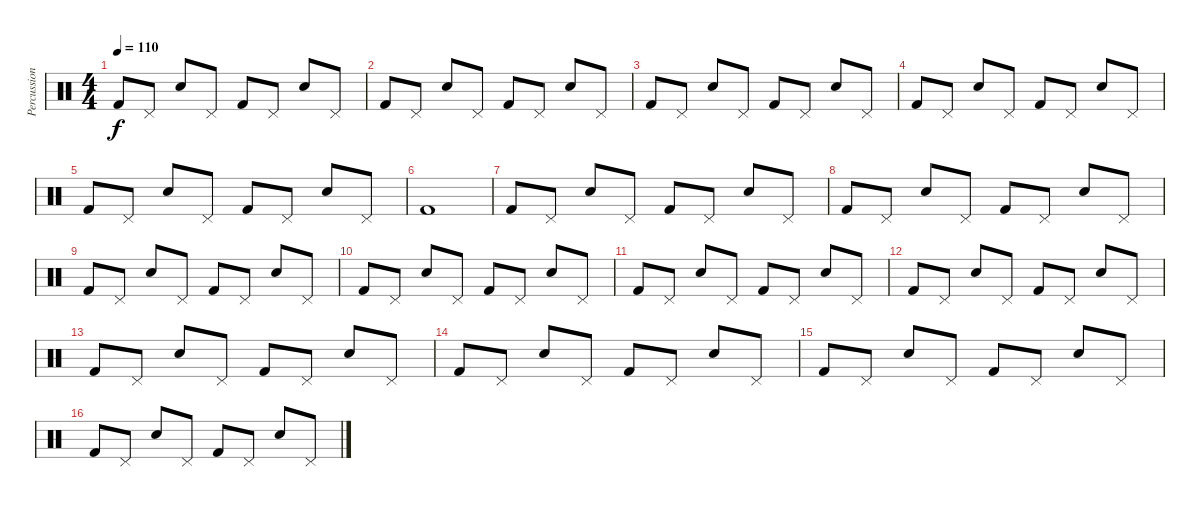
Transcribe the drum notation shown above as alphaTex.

\track ("Percussion" "Percussion") {instrument percussion}
\staff {score}
\articulation defaults
\ts (4 4)
\tempo 110
\clef neutral
\ks c "Kick (hit) 2".8{dy f} "Pedal Hi-Hat (hit)".8 "Snare (hit) 2".8 "Pedal Hi-Hat (hit)".8 "Kick (hit) 2".8 "Pedal Hi-Hat (hit)".8 "Snare (hit) 2".8 "Pedal Hi-Hat (hit)".8
|
"Kick (hit) 2".8 "Pedal Hi-Hat (hit)".8 "Snare (hit) 2".8 "Pedal Hi-Hat (hit)".8 "Kick (hit) 2".8 "Pedal Hi-Hat (hit)".8 "Snare (hit) 2".8 "Pedal Hi-Hat (hit)".8 |
"Kick (hit) 2".8 "Pedal Hi-Hat (hit)".8 "Snare (hit) 2".8 "Pedal Hi-Hat (hit)".8 "Kick (hit) 2".8 "Pedal Hi-Hat (hit)".8 "Snare (hit) 2".8 "Pedal Hi-Hat (hit)".8 |
"Kick (hit) 2".8 "Pedal Hi-Hat (hit)".8 "Snare (hit) 2".8 "Pedal Hi-Hat (hit)".8 "Kick (hit) 2".8 "Pedal Hi-Hat (hit)".8 "Snare (hit) 2".8 "Pedal Hi-Hat (hit)".8 |
"Kick (hit) 2".8 "Pedal Hi-Hat (hit)".8 "Snare (hit) 2".8 "Pedal Hi-Hat (hit)".8 "Kick (hit) 2".8 "Pedal Hi-Hat (hit)".8 "Snare (hit) 2".8 "Pedal Hi-Hat (hit)".8 |
"Kick (hit) 2".1 |
"Kick (hit) 2".8 "Pedal Hi-Hat (hit)".8 "Snare (hit) 2".8 "Pedal Hi-Hat (hit)".8 "Kick (hit) 2".8 "Pedal Hi-Hat (hit)".8 "Snare (hit) 2".8 "Pedal Hi-Hat (hit)".8 |
"Kick (hit) 2".8 "Pedal Hi-Hat (hit)".8 "Snare (hit) 2".8 "Pedal Hi-Hat (hit)".8 "Kick (hit) 2".8 "Pedal Hi-Hat (hit)".8 "Snare (hit) 2".8 "Pedal Hi-Hat (hit)".8 |
"Kick (hit) 2".8 "Pedal Hi-Hat (hit)".8 "Snare (hit) 2".8 "Pedal Hi-Hat (hit)".8 "Kick (hit) 2".8 "Pedal Hi-Hat (hit)".8 "Snare (hit) 2".8 "Pedal Hi-Hat (hit)".8 |
"Kick (hit) 2".8 "Pedal Hi-Hat (hit)".8 "Snare (hit) 2".8 "Pedal Hi-Hat (hit)".8 "Kick (hit) 2".8 "Pedal Hi-Hat (hit)".8 "Snare (hit) 2".8 "Pedal Hi-Hat (hit)".8 |
"Kick (hit) 2".8 "Pedal Hi-Hat (hit)".8 "Snare (hit) 2".8 "Pedal Hi-Hat (hit)".8 "Kick (hit) 2".8 "Pedal Hi-Hat (hit)".8 "Snare (hit) 2".8 "Pedal Hi-Hat (hit)".8 |
"Kick (hit) 2".8 "Pedal Hi-Hat (hit)".8 "Snare (hit) 2".8 "Pedal Hi-Hat (hit)".8 "Kick (hit) 2".8 "Pedal Hi-Hat (hit)".8 "Snare (hit) 2".8 "Pedal Hi-Hat (hit)".8 |
"Kick (hit) 2".8 "Pedal Hi-Hat (hit)".8 "Snare (hit) 2".8 "Pedal Hi-Hat (hit)".8 "Kick (hit) 2".8 "Pedal Hi-Hat (hit)".8 "Snare (hit) 2".8 "Pedal Hi-Hat (hit)".8 |
"Kick (hit) 2".8 "Pedal Hi-Hat (hit)".8 "Snare (hit) 2".8 "Pedal Hi-Hat (hit)".8 "Kick (hit) 2".8 "Pedal Hi-Hat (hit)".8 "Snare (hit) 2".8 "Pedal Hi-Hat (hit)".8 |
"Kick (hit) 2".8 "Pedal Hi-Hat (hit)".8 "Snare (hit) 2".8 "Pedal Hi-Hat (hit)".8 "Kick (hit) 2".8 "Pedal Hi-Hat (hit)".8 "Snare (hit) 2".8 "Pedal Hi-Hat (hit)".8 |
"Kick (hit) 2".8 "Pedal Hi-Hat (hit)".8 "Snare (hit) 2".8 "Pedal Hi-Hat (hit)".8 "Kick (hit) 2".8 "Pedal Hi-Hat (hit)".8 "Snare (hit) 2".8 "Pedal Hi-Hat (hit)".8
